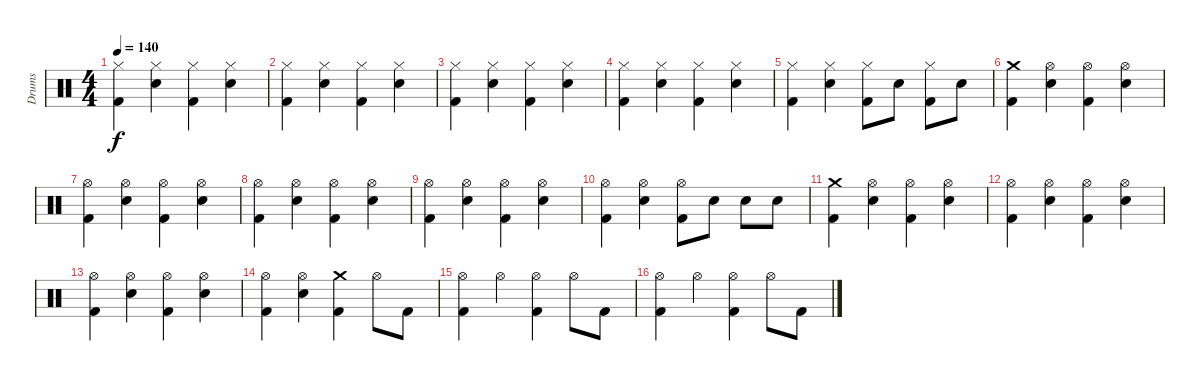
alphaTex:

\track ("Drums" "Drums") {instrument percussion}
\staff {score}
\articulation defaults
\ts (4 4)
\tempo 140
\clef neutral
\ks c
("Hi-Hat (closed)" "Kick (hit) 2").4{dy f} ("Hi-Hat (closed)" "Electric Snare (hit)").4 ("Hi-Hat (closed)" "Kick (hit) 2").4 ("Hi-Hat (closed)" "Electric Snare (hit)").4 |
("Hi-Hat (closed)" "Kick (hit) 2").4 ("Hi-Hat (closed)" "Electric Snare (hit)").4 ("Hi-Hat (closed)" "Kick (hit) 2").4 ("Hi-Hat (closed)" "Electric Snare (hit)").4 |
("Hi-Hat (closed)" "Kick (hit) 2").4 ("Hi-Hat (closed)" "Electric Snare (hit)").4 ("Hi-Hat (closed)" "Kick (hit) 2").4 ("Hi-Hat (closed)" "Electric Snare (hit)").4 |
("Hi-Hat (closed)" "Kick (hit) 2").4 ("Hi-Hat (closed)" "Electric Snare (hit)").4 ("Hi-Hat (closed)" "Kick (hit) 2").4 ("Hi-Hat (closed)" "Electric Snare (hit)").4 |
("Hi-Hat (closed)" "Kick (hit) 2").4 ("Hi-Hat (closed)" "Electric Snare (hit)").4 ("Hi-Hat (closed)" "Kick (hit) 2").8 "Electric Snare (hit)".8 ("Hi-Hat (closed)" "Kick (hit) 2").8 "Electric Snare (hit)".8 |
("Crash medium (hit)" "Kick (hit) 2").4 ("Hi-Hat (open)" "Electric Snare (hit)").4 ("Hi-Hat (open)" "Kick (hit) 2").4 ("Hi-Hat (open)" "Electric Snare (hit)").4 |
("Hi-Hat (open)" "Kick (hit) 2").4 ("Hi-Hat (open)" "Electric Snare (hit)").4 ("Hi-Hat (open)" "Kick (hit) 2").4 ("Hi-Hat (open)" "Electric Snare (hit)").4 |
("Hi-Hat (open)" "Kick (hit) 2").4 ("Hi-Hat (open)" "Electric Snare (hit)").4 ("Hi-Hat (open)" "Kick (hit) 2").4 ("Hi-Hat (open)" "Electric Snare (hit)").4 |
("Hi-Hat (open)" "Kick (hit) 2").4 ("Hi-Hat (open)" "Electric Snare (hit)").4 ("Hi-Hat (open)" "Kick (hit) 2").4 ("Hi-Hat (open)" "Electric Snare (hit)").4 |
("Hi-Hat (open)" "Kick (hit) 2").4 ("Hi-Hat (open)" "Electric Snare (hit)").4 ("Hi-Hat (open)" "Kick (hit) 2").8 "Electric Snare (hit)".8 "Electric Snare (hit)".8 "Electric Snare (hit)".8 |
("Crash medium (hit)" "Kick (hit) 2").4 ("Hi-Hat (open)" "Electric Snare (hit)").4 ("Hi-Hat (open)" "Kick (hit) 2").4 ("Hi-Hat (open)" "Electric Snare (hit)").4 |
("Hi-Hat (open)" "Kick (hit) 2").4 ("Hi-Hat (open)" "Electric Snare (hit)").4 ("Hi-Hat (open)" "Kick (hit) 2").4 ("Hi-Hat (open)" "Electric Snare (hit)").4 |
("Hi-Hat (open)" "Kick (hit) 2").4 ("Hi-Hat (open)" "Electric Snare (hit)").4 ("Hi-Hat (open)" "Kick (hit) 2").4 ("Hi-Hat (open)" "Electric Snare (hit)").4 |
("Hi-Hat (open)" "Kick (hit) 2").4 ("Hi-Hat (open)" "Electric Snare (hit)").4 ("Crash medium (hit)" "Kick (hit) 2").4 "Hi-Hat (open)".8 "Kick (hit) 2".8 |
("Hi-Hat (open)" "Kick (hit) 2").4 "Hi-Hat (open)".4 ("Hi-Hat (open)" "Kick (hit) 2").4 "Hi-Hat (open)".8 "Kick (hit) 2".8 |
("Hi-Hat (open)" "Kick (hit) 2").4 "Hi-Hat (open)".4 ("Hi-Hat (open)" "Kick (hit) 2").4 "Hi-Hat (open)".8 "Kick (hit) 2".8
